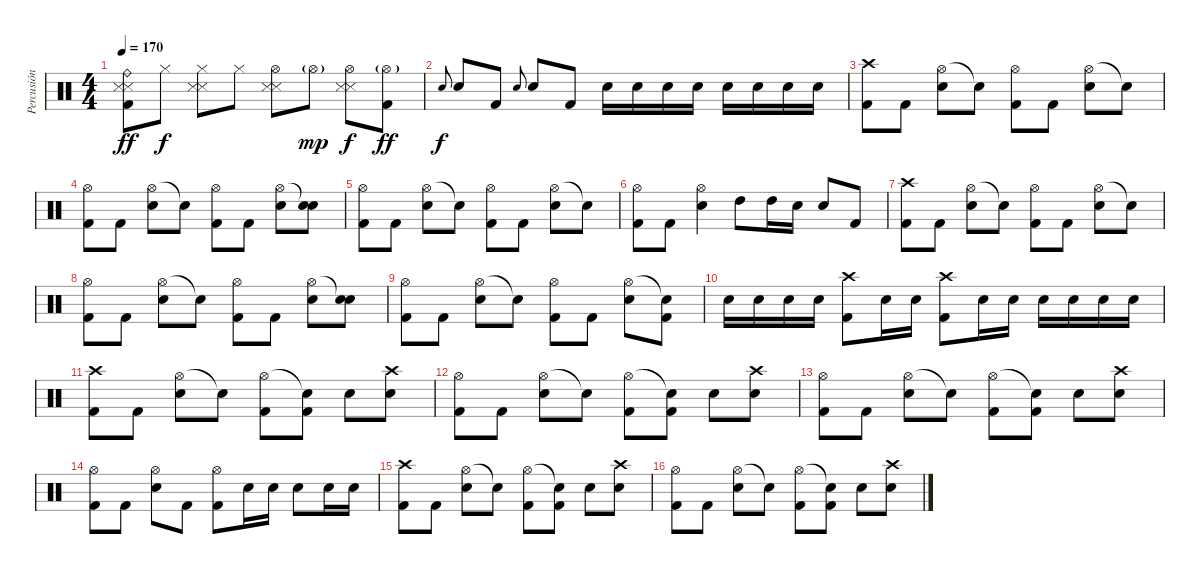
\track ("Percusión" "Percusión") {instrument percussion}
\staff {score}
\articulation defaults
\ts (4 4)
\tempo 170
\clef neutral
\ks c
("Ride (bell)" "Snare (side stick) 3" "Snare (side stick) 3" "Kick (hit) 2").8{dy ff} "Hi-Hat (closed)".8{dy f} ("Hi-Hat (closed)" "Snare (side stick) 3" "Snare (side stick) 3").8 "Hi-Hat (closed)".8 ("Hi-Hat (open)" "Snare (side stick) 3" "Snare (side stick) 3").8 "Hi-Hat (open)"{g}.8{dy mp} ("Hi-Hat (open)" "Snare (side stick) 3" "Snare (side stick) 3").8{dy f} ("Hi-Hat (open)"{g} "Kick (hit) 2").8{dy ff} |
"Snare (hit) 2".8{gr onbeat dy f} "Snare (hit) 2".8 "Kick (hit) 2".8 "Snare (hit) 2".8{gr onbeat} "Snare (hit) 2".8 "Kick (hit) 2".8 "Snare (hit) 2".16 "Snare (hit) 2".16 "Snare (hit) 2".16 "Snare (hit) 2".16 "Snare (hit) 2".16 "Snare (hit) 2".16 "Snare (hit) 2".16 "Snare (hit) 2".16 |
("Crash high (hit)" "Kick (hit) 2").8 "Kick (hit) 2".8 ("Hi-Hat (open)" "Snare (hit) 2").8 "Snare (hit)"{t}.8 ("Hi-Hat (open)" "Kick (hit) 2").8 "Kick (hit) 2".8 ("Hi-Hat (open)" "Snare (hit) 2").8 "Snare (hit)"{t}.8 |
("Hi-Hat (open)" "Kick (hit) 2").8 "Kick (hit) 2".8 ("Hi-Hat (open)" "Snare (hit) 2").8 "Snare (hit)"{t}.8 ("Hi-Hat (open)" "Kick (hit) 2").8 "Kick (hit) 2".8 ("Hi-Hat (open)" "Snare (hit) 2").8 ("Snare (hit)"{t} "Snare (hit) 2").8 |
("Hi-Hat (open)" "Kick (hit) 2").8 "Kick (hit) 2".8 ("Hi-Hat (open)" "Snare (hit) 2").8 "Snare (hit)"{t}.8 ("Hi-Hat (open)" "Kick (hit) 2").8 "Kick (hit) 2".8 ("Hi-Hat (open)" "Snare (hit) 2").8 "Snare (hit)"{t}.8 |
("Hi-Hat (open)" "Kick (hit) 2").8 "Kick (hit) 2".8 ("Hi-Hat (open)" "Snare (hit) 2").4 "High Tom (hit)".8 "High Tom (hit)".16 "Snare (hit) 2".16 "Snare (hit) 2".8 "Kick (hit) 2".8 |
("Crash high (hit)" "Kick (hit) 2").8 "Kick (hit) 2".8 ("Hi-Hat (open)" "Snare (hit) 2").8 "Snare (hit)"{t}.8 ("Hi-Hat (open)" "Kick (hit) 2").8 "Kick (hit) 2".8 ("Hi-Hat (open)" "Snare (hit) 2").8 "Snare (hit)"{t}.8 |
("Hi-Hat (open)" "Kick (hit) 2").8 "Kick (hit) 2".8 ("Hi-Hat (open)" "Snare (hit) 2").8 "Snare (hit)"{t}.8 ("Hi-Hat (open)" "Kick (hit) 2").8 "Kick (hit) 2".8 ("Hi-Hat (open)" "Snare (hit) 2").8 ("Snare (hit)"{t} "Snare (hit) 2").8 |
("Hi-Hat (open)" "Kick (hit) 2").8 "Kick (hit) 2".8 ("Hi-Hat (open)" "Snare (hit) 2").8 "Snare (hit)"{t}.8 ("Hi-Hat (open)" "Kick (hit) 2").8 "Kick (hit) 2".8 ("Hi-Hat (open)" "Snare (hit) 2").8 ("Snare (hit)"{t} "Kick (hit) 2").8 |
"Snare (hit) 2".16 "Snare (hit) 2".16 "Snare (hit) 2".16 "Snare (hit) 2".16 ("Crash high (hit)" "Kick (hit) 2").8 "Snare (hit) 2".16 "Snare (hit) 2".16 ("Crash high (hit)" "Kick (hit) 2").8 "Snare (hit) 2".16 "Snare (hit) 2".16 "Snare (hit) 2".16 "Snare (hit) 2".16 "Snare (hit) 2".16 "Snare (hit) 2".16 |
("Crash high (hit)" "Kick (hit) 2").8 "Kick (hit) 2".8 ("Hi-Hat (open)" "Snare (hit) 2").8 "Snare (hit)"{t}.8 ("Hi-Hat (open)" "Kick (hit) 2").8 ("Snare (hit)"{t} "Kick (hit) 2").8 "Snare (hit) 2".8 ("Crash high (hit)" "Snare (hit) 2").8 |
("Hi-Hat (open)" "Kick (hit) 2").8 "Kick (hit) 2".8 ("Hi-Hat (open)" "Snare (hit) 2").8 "Snare (hit)"{t}.8 ("Hi-Hat (open)" "Kick (hit) 2").8 ("Snare (hit)"{t} "Kick (hit) 2").8 "Snare (hit) 2".8 ("Crash high (hit)" "Snare (hit) 2").8 |
("Hi-Hat (open)" "Kick (hit) 2").8 "Kick (hit) 2".8 ("Hi-Hat (open)" "Snare (hit) 2").8 "Snare (hit)"{t}.8 ("Hi-Hat (open)" "Kick (hit) 2").8 ("Snare (hit)"{t} "Kick (hit) 2").8 "Snare (hit) 2".8 ("Crash high (hit)" "Snare (hit) 2").8 |
("Hi-Hat (open)" "Kick (hit) 2").8 "Kick (hit) 2".8 ("Hi-Hat (open)" "Snare (hit) 2").8 "Kick (hit) 2".8 ("Hi-Hat (open)" "Kick (hit) 2").8 "Snare (hit) 2".16 "Snare (hit) 2".16 "Snare (hit) 2".8 "Snare (hit) 2".16 "Snare (hit) 2".16 |
("Crash high (hit)" "Kick (hit) 2").8 "Kick (hit) 2".8 ("Hi-Hat (open)" "Snare (hit) 2").8 "Snare (hit)"{t}.8 ("Hi-Hat (open)" "Kick (hit) 2").8 ("Snare (hit)"{t} "Kick (hit) 2").8 "Snare (hit) 2".8 ("Crash high (hit)" "Snare (hit) 2").8 |
("Hi-Hat (open)" "Kick (hit) 2").8 "Kick (hit) 2".8 ("Hi-Hat (open)" "Snare (hit) 2").8 "Snare (hit)"{t}.8 ("Hi-Hat (open)" "Kick (hit) 2").8 ("Snare (hit)"{t} "Kick (hit) 2").8 "Snare (hit) 2".8 ("Crash high (hit)" "Snare (hit) 2").8
